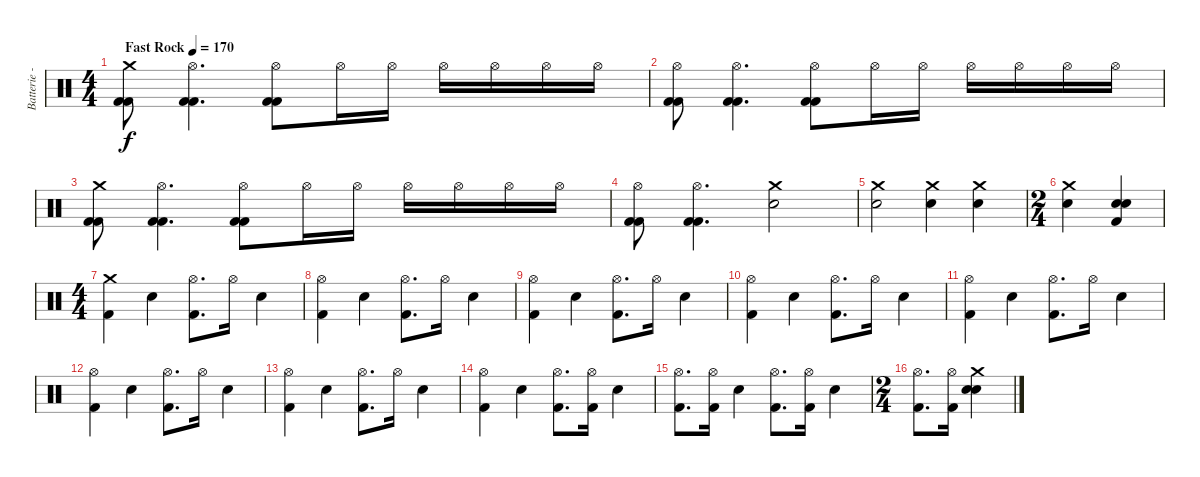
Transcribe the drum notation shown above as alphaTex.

\track ("Batterie - Anders Johansson" "Batterie -") {instrument percussion}
\staff {score}
\articulation defaults
\ts (4 4)
\tempo (170 "Fast Rock")
\clef neutral
\ks c
("Crash medium (hit)" "Kick (hit) 2" "Kick (hit) 2").8{dy f} ("Hi-Hat (open)" "Kick (hit) 2" "Kick (hit) 2").4{d} ("Hi-Hat (open)" "Kick (hit) 2" "Kick (hit) 2").8 "Hi-Hat (open)".16 "Hi-Hat (open)".16 "Hi-Hat (open)".16 "Hi-Hat (open)".16 "Hi-Hat (open)".16 "Hi-Hat (open)".16 |
("Hi-Hat (open)" "Kick (hit) 2" "Kick (hit) 2").8 ("Hi-Hat (open)" "Kick (hit) 2" "Kick (hit) 2").4{d} ("Hi-Hat (open)" "Kick (hit) 2" "Kick (hit) 2").8 "Hi-Hat (open)".16 "Hi-Hat (open)".16 "Hi-Hat (open)".16 "Hi-Hat (open)".16 "Hi-Hat (open)".16 "Hi-Hat (open)".16 |
("Crash medium (hit)" "Kick (hit) 2" "Kick (hit) 2").8 ("Hi-Hat (open)" "Kick (hit) 2" "Kick (hit) 2").4{d} ("Hi-Hat (open)" "Kick (hit) 2" "Kick (hit) 2").8 "Hi-Hat (open)".16 "Hi-Hat (open)".16 "Hi-Hat (open)".16 "Hi-Hat (open)".16 "Hi-Hat (open)".16 "Hi-Hat (open)".16 |
("Hi-Hat (open)" "Kick (hit) 2" "Kick (hit) 2").8 ("Hi-Hat (open)" "Kick (hit) 2" "Kick (hit) 2").4{d} ("Crash medium (hit)" "Electric Snare (hit)").2 |
("Crash medium (hit)" "Electric Snare (hit)").2 ("Crash medium (hit)" "Electric Snare (hit)").4 ("Crash medium (hit)" "Electric Snare (hit)").4 |
\ts (2 4)
("Crash medium (hit)" "Electric Snare (hit)").4 ("Electric Snare (hit)" "Electric Snare (hit)" "Kick (hit) 2").4 |
\ts (4 4)
("Crash medium (hit)" "Kick (hit) 2").4 "Electric Snare (hit)".4 ("Hi-Hat (open)" "Kick (hit) 2").8{d} "Hi-Hat (open)".16 "Electric Snare (hit)".4 |
("Hi-Hat (open)" "Kick (hit) 2").4 "Electric Snare (hit)".4 ("Hi-Hat (open)" "Kick (hit) 2").8{d} "Hi-Hat (open)".16 "Electric Snare (hit)".4 |
("Hi-Hat (open)" "Kick (hit) 2").4 "Electric Snare (hit)".4 ("Hi-Hat (open)" "Kick (hit) 2").8{d} "Hi-Hat (open)".16 "Electric Snare (hit)".4 |
("Hi-Hat (open)" "Kick (hit) 2").4 "Electric Snare (hit)".4 ("Hi-Hat (open)" "Kick (hit) 2").8{d} "Hi-Hat (open)".16 "Electric Snare (hit)".4 |
("Hi-Hat (open)" "Kick (hit) 2").4 "Electric Snare (hit)".4 ("Hi-Hat (open)" "Kick (hit) 2").8{d} "Hi-Hat (open)".16 "Electric Snare (hit)".4 |
("Hi-Hat (open)" "Kick (hit) 2").4 "Electric Snare (hit)".4 ("Hi-Hat (open)" "Kick (hit) 2").8{d} "Hi-Hat (open)".16 "Electric Snare (hit)".4 |
("Hi-Hat (open)" "Kick (hit) 2").4 "Electric Snare (hit)".4 ("Hi-Hat (open)" "Kick (hit) 2").8{d} "Hi-Hat (open)".16 "Electric Snare (hit)".4 |
("Hi-Hat (open)" "Kick (hit) 2").4 "Electric Snare (hit)".4 ("Hi-Hat (open)" "Kick (hit) 2").8{d} ("Hi-Hat (open)" "Kick (hit) 2").16 "Electric Snare (hit)".4 |
("Hi-Hat (open)" "Kick (hit) 2").8{d} ("Hi-Hat (open)" "Kick (hit) 2").16 "Electric Snare (hit)".4 ("Hi-Hat (open)" "Kick (hit) 2").8{d} ("Hi-Hat (open)" "Kick (hit) 2").16 "Electric Snare (hit)".4 |
\ts (2 4)
("Hi-Hat (open)" "Kick (hit) 2").8{d} ("Hi-Hat (open)" "Kick (hit) 2").16 ("Crash medium (hit)" "Electric Snare (hit)" "Electric Snare (hit)").4
